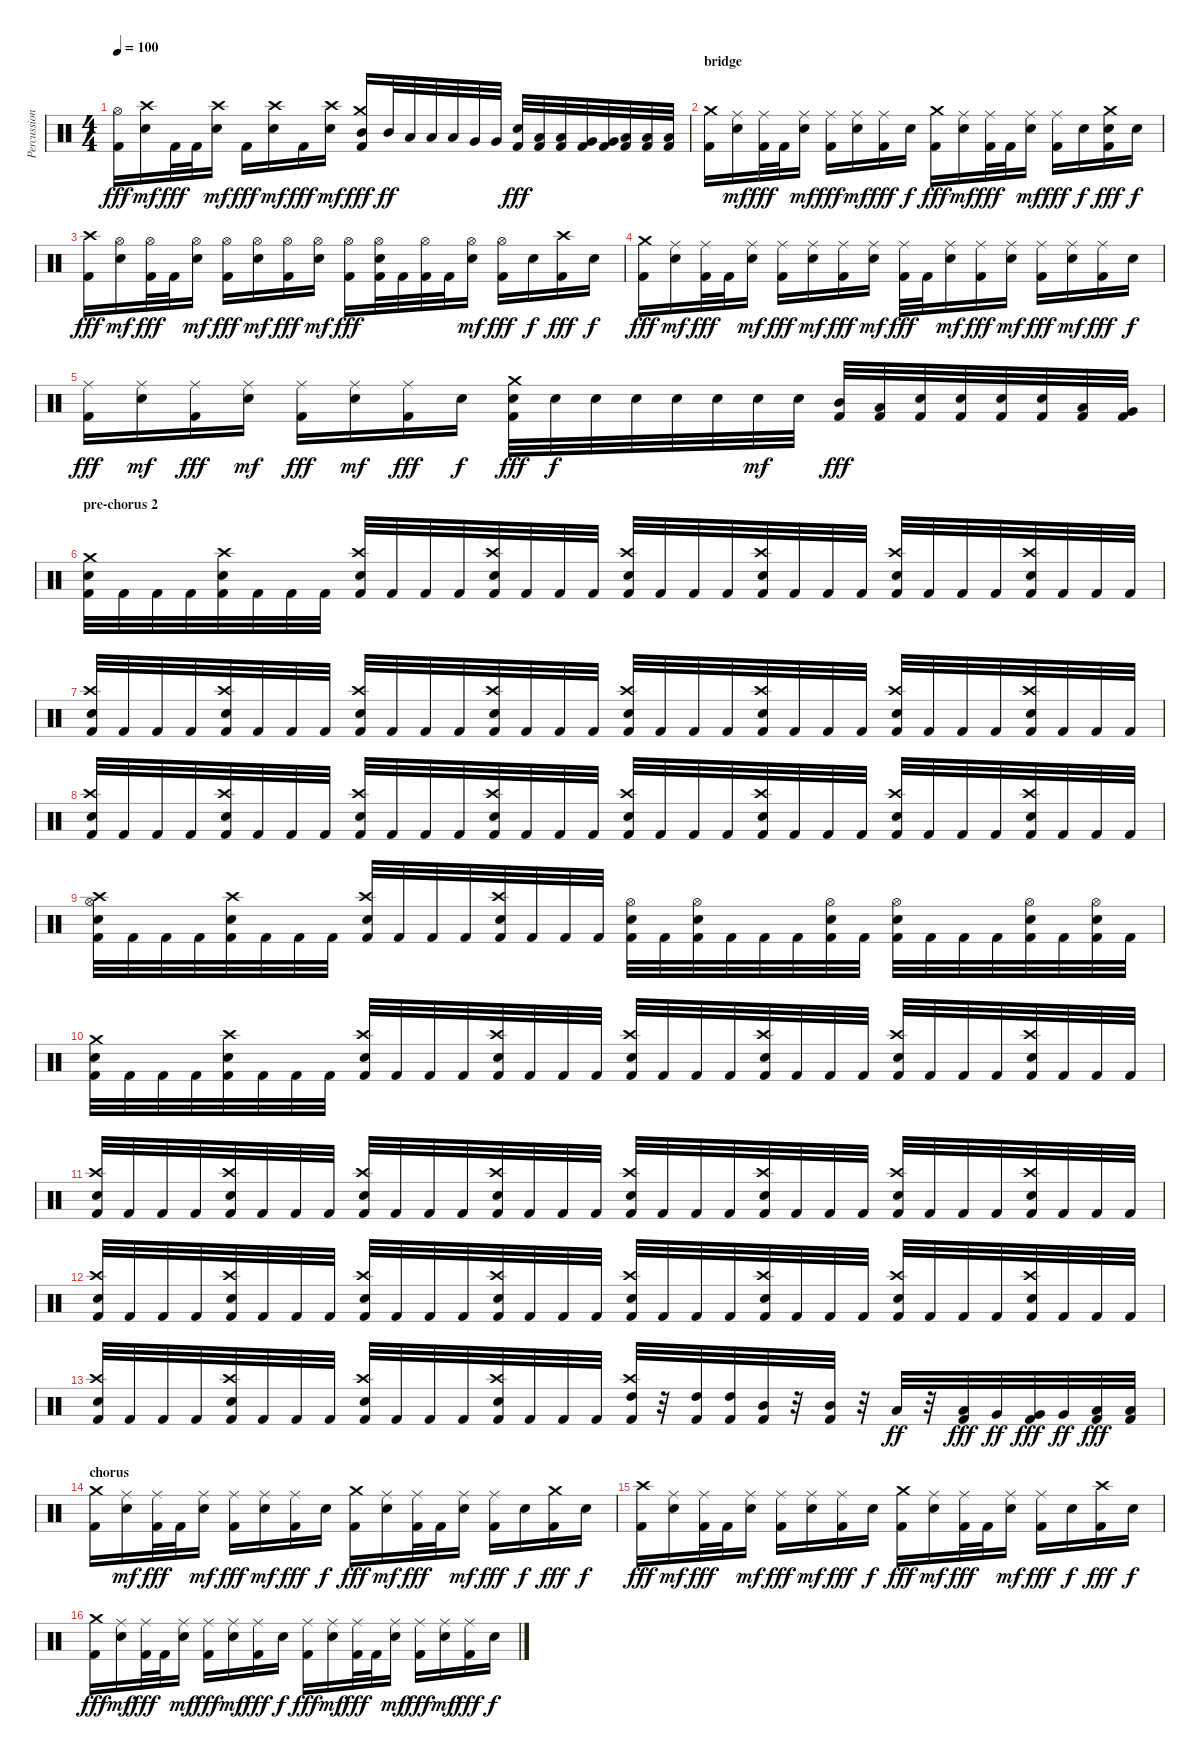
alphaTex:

\track ("Percussion" "Percussion") {instrument percussion}
\staff {score}
\articulation defaults
\ts (4 4)
\tempo 100
\clef neutral
\ks c
("Hi-Hat (open)" "Kick (hit) 2").16{dy fff} ("Crash high (hit)" "Snare (hit) 2").16{dy mf} "Kick (hit) 2".32{dy fff} "Kick (hit) 2".32 ("Crash high (hit)" "Snare (hit) 2").16{dy mf} "Kick (hit) 2".16{dy fff} ("Crash high (hit)" "Snare (hit) 2").16{dy mf} "Kick (hit) 2".16{dy fff} ("Crash high (hit)" "Snare (hit) 2").16{dy mf} ("Crash medium (hit)" "Mid Tom (hit)" "Kick (hit) 2").16{dy fff} "Mid Tom (hit)".32{dy ff} "Low Tom (hit)".32 "Low Tom (hit)".32 "Low Tom (hit)".32 "Very Low Tom (hit)".32 "Very Low Tom (hit)".32 ("Snare (hit) 2" "Kick (hit) 2").32{dy fff} ("Low Tom (hit)" "Kick (hit) 2").32 ("Low Tom (hit)" "Kick (hit) 2").32 ("Very Low Tom (hit)" "Kick (hit) 2").32 ("Very Low Tom (hit)" "Kick (hit) 2").32 ("Low Floor Tom (hit)" "Kick (hit) 2").32 ("Low Floor Tom (hit)" "Kick (hit) 2").32 ("Low Floor Tom (hit)" "Kick (hit) 2").32 |
\section ("" "bridge")
("Crash medium (hit)" "Kick (hit) 2").16 ("Ride (middle)" "Snare (hit) 2").16{dy mf} ("Ride (middle)" "Kick (hit) 2").32{dy fff} "Kick (hit) 2".32 ("Ride (middle)" "Snare (hit) 2").16{dy mf} ("Ride (middle)" "Kick (hit) 2").16{dy fff} ("Ride (middle)" "Snare (hit) 2").16{dy mf} ("Ride (middle)" "Kick (hit) 2").16{dy fff} "Snare (hit) 2".16{dy f} ("Crash medium (hit)" "Kick (hit) 2").16{dy fff} ("Ride (middle)" "Snare (hit) 2").16{dy mf} ("Ride (middle)" "Kick (hit) 2").32{dy fff} "Kick (hit) 2".32 ("Ride (middle)" "Snare (hit) 2").16{dy mf} ("Ride (middle)" "Kick (hit) 2").16{dy fff} "Snare (hit) 2".16{dy f} ("Crash medium (hit)" "Snare (hit) 2" "Kick (hit) 2").16{dy fff} "Snare (hit) 2".16{dy f} |
("Crash high (hit)" "Kick (hit) 2").16{dy fff} ("Hi-Hat (open)" "Snare (hit) 2").16{dy mf} ("Hi-Hat (open)" "Kick (hit) 2").32{dy fff} "Kick (hit) 2".32 ("Hi-Hat (open)" "Snare (hit) 2").16{dy mf} ("Hi-Hat (open)" "Kick (hit) 2").16{dy fff} ("Hi-Hat (open)" "Snare (hit) 2").16{dy mf} ("Hi-Hat (open)" "Kick (hit) 2").16{dy fff} ("Hi-Hat (open)" "Snare (hit) 2").16{dy mf} ("Hi-Hat (open)" "Kick (hit) 2").16{dy fff} ("Hi-Hat (open)" "Snare (hit) 2" "Kick (hit) 2").32 "Kick (hit) 2".32 ("Hi-Hat (open)" "Kick (hit) 2").32 "Kick (hit) 2".32 ("Hi-Hat (open)" "Snare (hit) 2").16{dy mf} ("Hi-Hat (open)" "Kick (hit) 2").16{dy fff} "Snare (hit) 2".16{dy f} ("Crash high (hit)" "Kick (hit) 2").16{dy fff} "Snare (hit) 2".16{dy f} |
("Crash medium (hit)" "Kick (hit) 2").16{dy fff} ("Ride (middle)" "Snare (hit) 2").16{dy mf} ("Ride (middle)" "Kick (hit) 2").32{dy fff} "Kick (hit) 2".32 ("Ride (middle)" "Snare (hit) 2").16{dy mf} ("Ride (middle)" "Kick (hit) 2").16{dy fff} ("Ride (middle)" "Snare (hit) 2").16{dy mf} ("Ride (middle)" "Kick (hit) 2").16{dy fff} ("Ride (middle)" "Snare (hit) 2").16{dy mf} ("Ride (middle)" "Kick (hit) 2").32{dy fff} "Kick (hit) 2".32 ("Ride (middle)" "Snare (hit) 2").16{dy mf} ("Ride (middle)" "Kick (hit) 2").16{dy fff} ("Ride (middle)" "Snare (hit) 2").16{dy mf} ("Ride (middle)" "Kick (hit) 2").16{dy fff} ("Ride (middle)" "Snare (hit) 2").16{dy mf} ("Ride (middle)" "Kick (hit) 2").16{dy fff} "Snare (hit) 2".16{dy f} |
("Ride (middle)" "Kick (hit) 2").16{dy fff} ("Ride (middle)" "Snare (hit) 2").16{dy mf} ("Ride (middle)" "Kick (hit) 2").16{dy fff} ("Ride (middle)" "Snare (hit) 2").16{dy mf} ("Ride (middle)" "Kick (hit) 2").16{dy fff} ("Ride (middle)" "Snare (hit) 2").16{dy mf} ("Ride (middle)" "Kick (hit) 2").16{dy fff} "Snare (hit) 2".16{dy f} ("Crash medium (hit)" "Snare (hit) 2" "Kick (hit) 2").32{dy fff} "Snare (hit) 2".32{dy f} "Snare (hit) 2".32 "Snare (hit) 2".32 "Snare (hit) 2".32 "Snare (hit) 2".32 "Snare (hit) 2".32{dy mf} "Snare (hit) 2".32 ("Mid Tom (hit)" "Kick (hit) 2").32{dy fff} ("Low Tom (hit)" "Kick (hit) 2").32 ("Snare (hit) 2" "Kick (hit) 2").32 ("Snare (hit) 2" "Kick (hit) 2").32 ("Snare (hit) 2" "Kick (hit) 2").32 ("Snare (hit) 2" "Kick (hit) 2").32 ("Low Tom (hit)" "Kick (hit) 2").32 ("Very Low Tom (hit)" "Kick (hit) 2").32 |
\section ("" "pre-chorus 2")
("Crash medium (hit)" "Snare (hit) 2" "Kick (hit) 2").32 "Kick (hit) 2".32 "Kick (hit) 2".32 "Kick (hit) 2".32 ("Crash high (hit)" "Snare (hit) 2" "Kick (hit) 2").32 "Kick (hit) 2".32 "Kick (hit) 2".32 "Kick (hit) 2".32 ("Crash high (hit)" "Snare (hit) 2" "Kick (hit) 2").32 "Kick (hit) 2".32 "Kick (hit) 2".32 "Kick (hit) 2".32 ("Crash high (hit)" "Snare (hit) 2" "Kick (hit) 2").32 "Kick (hit) 2".32 "Kick (hit) 2".32 "Kick (hit) 2".32 ("Crash high (hit)" "Snare (hit) 2" "Kick (hit) 2").32 "Kick (hit) 2".32 "Kick (hit) 2".32 "Kick (hit) 2".32 ("Crash high (hit)" "Snare (hit) 2" "Kick (hit) 2").32 "Kick (hit) 2".32 "Kick (hit) 2".32 "Kick (hit) 2".32 ("Crash high (hit)" "Snare (hit) 2" "Kick (hit) 2").32 "Kick (hit) 2".32 "Kick (hit) 2".32 "Kick (hit) 2".32 ("Crash high (hit)" "Snare (hit) 2" "Kick (hit) 2").32 "Kick (hit) 2".32 "Kick (hit) 2".32 "Kick (hit) 2".32 |
("Crash high (hit)" "Snare (hit) 2" "Kick (hit) 2").32 "Kick (hit) 2".32 "Kick (hit) 2".32 "Kick (hit) 2".32 ("Crash high (hit)" "Snare (hit) 2" "Kick (hit) 2").32 "Kick (hit) 2".32 "Kick (hit) 2".32 "Kick (hit) 2".32 ("Crash high (hit)" "Snare (hit) 2" "Kick (hit) 2").32 "Kick (hit) 2".32 "Kick (hit) 2".32 "Kick (hit) 2".32 ("Crash high (hit)" "Snare (hit) 2" "Kick (hit) 2").32 "Kick (hit) 2".32 "Kick (hit) 2".32 "Kick (hit) 2".32 ("Crash high (hit)" "Snare (hit) 2" "Kick (hit) 2").32 "Kick (hit) 2".32 "Kick (hit) 2".32 "Kick (hit) 2".32 ("Crash high (hit)" "Snare (hit) 2" "Kick (hit) 2").32 "Kick (hit) 2".32 "Kick (hit) 2".32 "Kick (hit) 2".32 ("Crash high (hit)" "Snare (hit) 2" "Kick (hit) 2").32 "Kick (hit) 2".32 "Kick (hit) 2".32 "Kick (hit) 2".32 ("Crash high (hit)" "Snare (hit) 2" "Kick (hit) 2").32 "Kick (hit) 2".32 "Kick (hit) 2".32 "Kick (hit) 2".32 |
("Crash high (hit)" "Snare (hit) 2" "Kick (hit) 2").32 "Kick (hit) 2".32 "Kick (hit) 2".32 "Kick (hit) 2".32 ("Crash high (hit)" "Snare (hit) 2" "Kick (hit) 2").32 "Kick (hit) 2".32 "Kick (hit) 2".32 "Kick (hit) 2".32 ("Crash high (hit)" "Snare (hit) 2" "Kick (hit) 2").32 "Kick (hit) 2".32 "Kick (hit) 2".32 "Kick (hit) 2".32 ("Crash high (hit)" "Snare (hit) 2" "Kick (hit) 2").32 "Kick (hit) 2".32 "Kick (hit) 2".32 "Kick (hit) 2".32 ("Crash high (hit)" "Snare (hit) 2" "Kick (hit) 2").32 "Kick (hit) 2".32 "Kick (hit) 2".32 "Kick (hit) 2".32 ("Crash high (hit)" "Snare (hit) 2" "Kick (hit) 2").32 "Kick (hit) 2".32 "Kick (hit) 2".32 "Kick (hit) 2".32 ("Crash high (hit)" "Snare (hit) 2" "Kick (hit) 2").32 "Kick (hit) 2".32 "Kick (hit) 2".32 "Kick (hit) 2".32 ("Crash high (hit)" "Snare (hit) 2" "Kick (hit) 2").32 "Kick (hit) 2".32 "Kick (hit) 2".32 "Kick (hit) 2".32 |
("Hi-Hat (open)" "Crash high (hit)" "Snare (hit) 2" "Kick (hit) 2").32 "Kick (hit) 2".32 "Kick (hit) 2".32 "Kick (hit) 2".32 ("Crash high (hit)" "Snare (hit) 2" "Kick (hit) 2").32 "Kick (hit) 2".32 "Kick (hit) 2".32 "Kick (hit) 2".32 ("Crash high (hit)" "Snare (hit) 2" "Kick (hit) 2").32 "Kick (hit) 2".32 "Kick (hit) 2".32 "Kick (hit) 2".32 ("Crash high (hit)" "Snare (hit) 2" "Kick (hit) 2").32 "Kick (hit) 2".32 "Kick (hit) 2".32 "Kick (hit) 2".32 ("Hi-Hat (open)" "Snare (hit) 2" "Kick (hit) 2").32 "Kick (hit) 2".32 ("Hi-Hat (open)" "Snare (hit) 2" "Kick (hit) 2").32 "Kick (hit) 2".32 "Kick (hit) 2".32 "Kick (hit) 2".32 ("Hi-Hat (open)" "Snare (hit) 2" "Kick (hit) 2").32 "Kick (hit) 2".32 ("Hi-Hat (open)" "Snare (hit) 2" "Kick (hit) 2").32 "Kick (hit) 2".32 "Kick (hit) 2".32 "Kick (hit) 2".32 ("Hi-Hat (open)" "Snare (hit) 2" "Kick (hit) 2").32 "Kick (hit) 2".32 ("Hi-Hat (open)" "Snare (hit) 2" "Kick (hit) 2").32 "Kick (hit) 2".32 |
("Crash medium (hit)" "Snare (hit) 2" "Kick (hit) 2").32 "Kick (hit) 2".32 "Kick (hit) 2".32 "Kick (hit) 2".32 ("Crash high (hit)" "Snare (hit) 2" "Kick (hit) 2").32 "Kick (hit) 2".32 "Kick (hit) 2".32 "Kick (hit) 2".32 ("Crash high (hit)" "Snare (hit) 2" "Kick (hit) 2").32 "Kick (hit) 2".32 "Kick (hit) 2".32 "Kick (hit) 2".32 ("Crash high (hit)" "Snare (hit) 2" "Kick (hit) 2").32 "Kick (hit) 2".32 "Kick (hit) 2".32 "Kick (hit) 2".32 ("Crash high (hit)" "Snare (hit) 2" "Kick (hit) 2").32 "Kick (hit) 2".32 "Kick (hit) 2".32 "Kick (hit) 2".32 ("Crash high (hit)" "Snare (hit) 2" "Kick (hit) 2").32 "Kick (hit) 2".32 "Kick (hit) 2".32 "Kick (hit) 2".32 ("Crash high (hit)" "Snare (hit) 2" "Kick (hit) 2").32 "Kick (hit) 2".32 "Kick (hit) 2".32 "Kick (hit) 2".32 ("Crash high (hit)" "Snare (hit) 2" "Kick (hit) 2").32 "Kick (hit) 2".32 "Kick (hit) 2".32 "Kick (hit) 2".32 |
("Crash high (hit)" "Snare (hit) 2" "Kick (hit) 2").32 "Kick (hit) 2".32 "Kick (hit) 2".32 "Kick (hit) 2".32 ("Crash high (hit)" "Snare (hit) 2" "Kick (hit) 2").32 "Kick (hit) 2".32 "Kick (hit) 2".32 "Kick (hit) 2".32 ("Crash high (hit)" "Snare (hit) 2" "Kick (hit) 2").32 "Kick (hit) 2".32 "Kick (hit) 2".32 "Kick (hit) 2".32 ("Crash high (hit)" "Snare (hit) 2" "Kick (hit) 2").32 "Kick (hit) 2".32 "Kick (hit) 2".32 "Kick (hit) 2".32 ("Crash high (hit)" "Snare (hit) 2" "Kick (hit) 2").32 "Kick (hit) 2".32 "Kick (hit) 2".32 "Kick (hit) 2".32 ("Crash high (hit)" "Snare (hit) 2" "Kick (hit) 2").32 "Kick (hit) 2".32 "Kick (hit) 2".32 "Kick (hit) 2".32 ("Crash high (hit)" "Snare (hit) 2" "Kick (hit) 2").32 "Kick (hit) 2".32 "Kick (hit) 2".32 "Kick (hit) 2".32 ("Crash high (hit)" "Snare (hit) 2" "Kick (hit) 2").32 "Kick (hit) 2".32 "Kick (hit) 2".32 "Kick (hit) 2".32 |
("Crash high (hit)" "Snare (hit) 2" "Kick (hit) 2").32 "Kick (hit) 2".32 "Kick (hit) 2".32 "Kick (hit) 2".32 ("Crash high (hit)" "Snare (hit) 2" "Kick (hit) 2").32 "Kick (hit) 2".32 "Kick (hit) 2".32 "Kick (hit) 2".32 ("Crash high (hit)" "Snare (hit) 2" "Kick (hit) 2").32 "Kick (hit) 2".32 "Kick (hit) 2".32 "Kick (hit) 2".32 ("Crash high (hit)" "Snare (hit) 2" "Kick (hit) 2").32 "Kick (hit) 2".32 "Kick (hit) 2".32 "Kick (hit) 2".32 ("Crash high (hit)" "Snare (hit) 2" "Kick (hit) 2").32 "Kick (hit) 2".32 "Kick (hit) 2".32 "Kick (hit) 2".32 ("Crash high (hit)" "Snare (hit) 2" "Kick (hit) 2").32 "Kick (hit) 2".32 "Kick (hit) 2".32 "Kick (hit) 2".32 ("Crash high (hit)" "Snare (hit) 2" "Kick (hit) 2").32 "Kick (hit) 2".32 "Kick (hit) 2".32 "Kick (hit) 2".32 ("Crash high (hit)" "Snare (hit) 2" "Kick (hit) 2").32 "Kick (hit) 2".32 "Kick (hit) 2".32 "Kick (hit) 2".32 |
("Crash high (hit)" "Snare (hit) 2" "Kick (hit) 2").32 "Kick (hit) 2".32 "Kick (hit) 2".32 "Kick (hit) 2".32 ("Crash high (hit)" "Snare (hit) 2" "Kick (hit) 2").32 "Kick (hit) 2".32 "Kick (hit) 2".32 "Kick (hit) 2".32 ("Crash high (hit)" "Snare (hit) 2" "Kick (hit) 2").32 "Kick (hit) 2".32 "Kick (hit) 2".32 "Kick (hit) 2".32 ("Crash high (hit)" "Snare (hit) 2" "Kick (hit) 2").32 "Kick (hit) 2".32 "Kick (hit) 2".32 "Kick (hit) 2".32 ("Crash high (hit)" "High Tom (hit)" "Kick (hit) 2").32 r.32 ("High Tom (hit)" "Kick (hit) 2").32 ("High Tom (hit)" "Kick (hit) 2").32 ("Mid Tom (hit)" "Kick (hit) 2").32 r.32 ("Mid Tom (hit)" "Kick (hit) 2").32 r.32 "Low Tom (hit)".32{dy ff} r.32 ("Low Tom (hit)" "Kick (hit) 2").32{dy fff} "Very Low Tom (hit)".32{dy ff} ("Very Low Tom (hit)" "Kick (hit) 2").32{dy fff} "Very Low Tom (hit)".32{dy ff} ("Low Floor Tom (hit)" "Kick (hit) 2").32{dy fff} ("Low Floor Tom (hit)" "Kick (hit) 2").32 |
\section ("" "chorus")
("Crash medium (hit)" "Kick (hit) 2").16 ("Ride (middle)" "Snare (hit) 2").16{dy mf} ("Ride (middle)" "Kick (hit) 2").32{dy fff} "Kick (hit) 2".32 ("Ride (middle)" "Snare (hit) 2").16{dy mf} ("Ride (middle)" "Kick (hit) 2").16{dy fff} ("Ride (middle)" "Snare (hit) 2").16{dy mf} ("Ride (middle)" "Kick (hit) 2").16{dy fff} "Snare (hit) 2".16{dy f} ("Crash medium (hit)" "Kick (hit) 2").16{dy fff} ("Ride (middle)" "Snare (hit) 2").16{dy mf} ("Ride (middle)" "Kick (hit) 2").32{dy fff} "Kick (hit) 2".32 ("Ride (middle)" "Snare (hit) 2").16{dy mf} ("Ride (middle)" "Kick (hit) 2").16{dy fff} "Snare (hit) 2".16{dy f} ("Crash medium (hit)" "Kick (hit) 2").16{dy fff} "Snare (hit) 2".16{dy f} |
("Crash high (hit)" "Kick (hit) 2").16{dy fff} ("Ride (middle)" "Snare (hit) 2").16{dy mf} ("Ride (middle)" "Kick (hit) 2").32{dy fff} "Kick (hit) 2".32 ("Ride (middle)" "Snare (hit) 2").16{dy mf} ("Ride (middle)" "Kick (hit) 2").16{dy fff} ("Ride (middle)" "Snare (hit) 2").16{dy mf} ("Ride (middle)" "Kick (hit) 2").16{dy fff} "Snare (hit) 2".16{dy f} ("Crash medium (hit)" "Kick (hit) 2").16{dy fff} ("Ride (middle)" "Snare (hit) 2").16{dy mf} ("Ride (middle)" "Kick (hit) 2").32{dy fff} "Kick (hit) 2".32 ("Ride (middle)" "Snare (hit) 2").16{dy mf} ("Ride (middle)" "Kick (hit) 2").16{dy fff} "Snare (hit) 2".16{dy f} ("Crash high (hit)" "Kick (hit) 2").16{dy fff} "Snare (hit) 2".16{dy f} |
("Crash medium (hit)" "Kick (hit) 2").16{dy fff} ("Ride (middle)" "Snare (hit) 2").16{dy mf} ("Ride (middle)" "Kick (hit) 2").32{dy fff} "Kick (hit) 2".32 ("Ride (middle)" "Snare (hit) 2").16{dy mf} ("Ride (middle)" "Kick (hit) 2").16{dy fff} ("Ride (middle)" "Snare (hit) 2").16{dy mf} ("Ride (middle)" "Kick (hit) 2").16{dy fff} "Snare (hit) 2".16{dy f} ("Ride (middle)" "Kick (hit) 2").16{dy fff} ("Ride (middle)" "Snare (hit) 2").16{dy mf} ("Ride (middle)" "Kick (hit) 2").32{dy fff} "Kick (hit) 2".32 ("Ride (middle)" "Snare (hit) 2").16{dy mf} ("Ride (middle)" "Kick (hit) 2").16{dy fff} ("Ride (middle)" "Snare (hit) 2").16{dy mf} ("Ride (middle)" "Kick (hit) 2").16{dy fff} "Snare (hit) 2".16{dy f}
